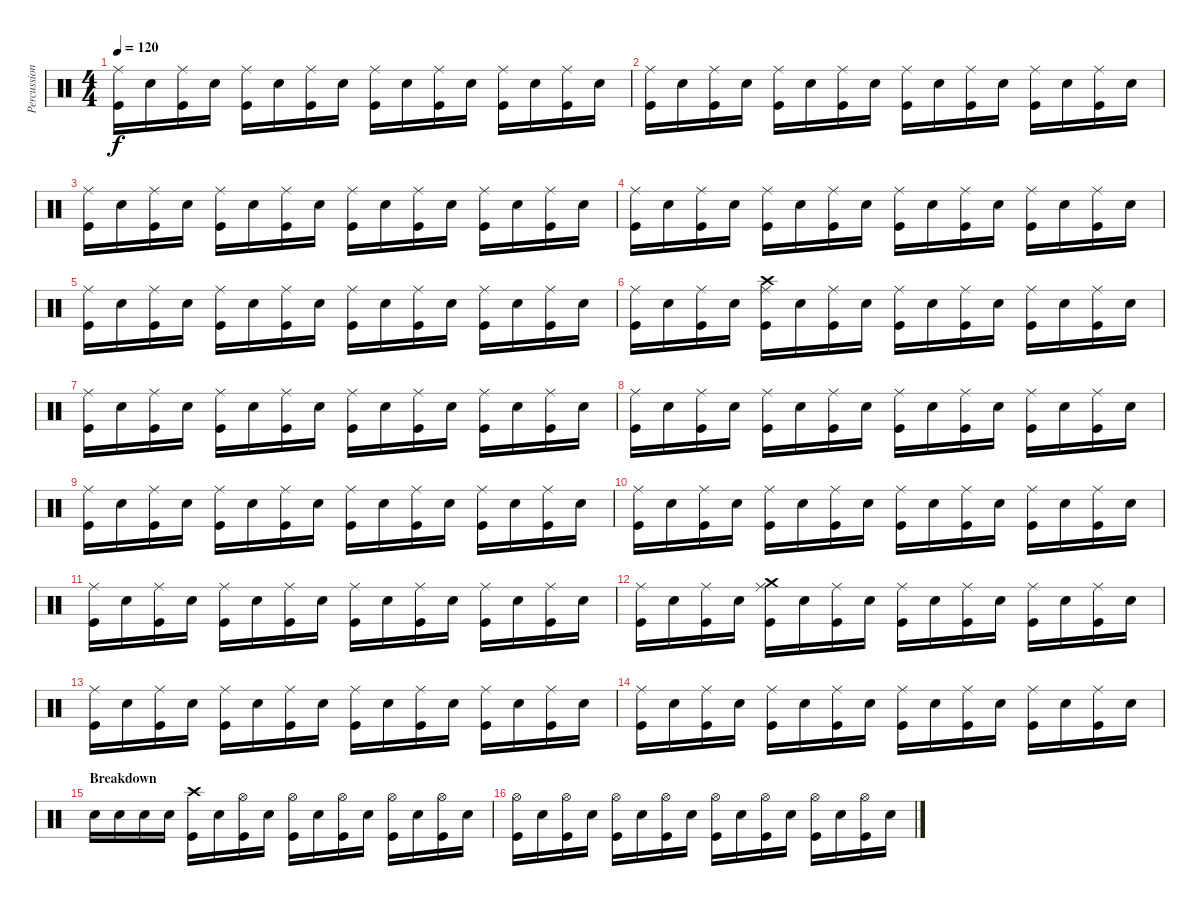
\track ("Percussioni" "Percussion") {instrument percussion}
\staff {score}
\articulation defaults
\ts (4 4)
\tempo 120
\clef neutral
\ks c
("Ride (middle)" "Kick (hit)").16{dy f} "Snare (hit) 2".16 ("Ride (middle)" "Kick (hit)").16 "Snare (hit) 2".16 ("Ride (middle)" "Kick (hit)").16 "Snare (hit) 2".16 ("Ride (middle)" "Kick (hit)").16 "Snare (hit) 2".16 ("Ride (middle)" "Kick (hit)").16 "Snare (hit) 2".16 ("Ride (middle)" "Kick (hit)").16 "Snare (hit) 2".16 ("Ride (middle)" "Kick (hit)").16 "Snare (hit) 2".16 ("Ride (middle)" "Kick (hit)").16 "Snare (hit) 2".16 |
("Ride (middle)" "Kick (hit)").16 "Snare (hit) 2".16 ("Ride (middle)" "Kick (hit)").16 "Snare (hit) 2".16 ("Ride (middle)" "Kick (hit)").16 "Snare (hit) 2".16 ("Ride (middle)" "Kick (hit)").16 "Snare (hit) 2".16 ("Ride (middle)" "Kick (hit)").16 "Snare (hit) 2".16 ("Ride (middle)" "Kick (hit)").16 "Snare (hit) 2".16 ("Ride (middle)" "Kick (hit)").16 "Snare (hit) 2".16 ("Ride (middle)" "Kick (hit)").16 "Snare (hit) 2".16 |
("Ride (middle)" "Kick (hit)").16 "Snare (hit) 2".16 ("Ride (middle)" "Kick (hit)").16 "Snare (hit) 2".16 ("Ride (middle)" "Kick (hit)").16 "Snare (hit) 2".16 ("Ride (middle)" "Kick (hit)").16 "Snare (hit) 2".16 ("Ride (middle)" "Kick (hit)").16 "Snare (hit) 2".16 ("Ride (middle)" "Kick (hit)").16 "Snare (hit) 2".16 ("Ride (middle)" "Kick (hit)").16 "Snare (hit) 2".16 ("Ride (middle)" "Kick (hit)").16 "Snare (hit) 2".16 |
("Ride (middle)" "Kick (hit)").16 "Snare (hit) 2".16 ("Ride (middle)" "Kick (hit)").16 "Snare (hit) 2".16 ("Ride (middle)" "Kick (hit)").16 "Snare (hit) 2".16 ("Ride (middle)" "Kick (hit)").16 "Snare (hit) 2".16 ("Ride (middle)" "Kick (hit)").16 "Snare (hit) 2".16 ("Ride (middle)" "Kick (hit)").16 "Snare (hit) 2".16 ("Ride (middle)" "Kick (hit)").16 "Snare (hit) 2".16 ("Ride (middle)" "Kick (hit)").16 "Snare (hit) 2".16 |
("Ride (middle)" "Kick (hit)").16 "Snare (hit) 2".16 ("Ride (middle)" "Kick (hit)").16 "Snare (hit) 2".16 ("Ride (middle)" "Kick (hit)").16 "Snare (hit) 2".16 ("Ride (middle)" "Kick (hit)").16 "Snare (hit) 2".16 ("Ride (middle)" "Kick (hit)").16 "Snare (hit) 2".16 ("Ride (middle)" "Kick (hit)").16 "Snare (hit) 2".16 ("Ride (middle)" "Kick (hit)").16 "Snare (hit) 2".16 ("Ride (middle)" "Kick (hit)").16 "Snare (hit) 2".16 |
("Ride (middle)" "Kick (hit)").16 "Snare (hit) 2".16 ("Ride (middle)" "Kick (hit)").16 "Snare (hit) 2".16 ("Crash high (hit)" "Ride (middle)" "Kick (hit)").16 "Snare (hit) 2".16 ("Ride (middle)" "Kick (hit)").16 "Snare (hit) 2".16 ("Ride (middle)" "Kick (hit)").16 "Snare (hit) 2".16 ("Ride (middle)" "Kick (hit)").16 "Snare (hit) 2".16 ("Ride (middle)" "Kick (hit)").16 "Snare (hit) 2".16 ("Ride (middle)" "Kick (hit)").16 "Snare (hit) 2".16 |
("Ride (middle)" "Kick (hit)").16 "Snare (hit) 2".16 ("Ride (middle)" "Kick (hit)").16 "Snare (hit) 2".16 ("Ride (middle)" "Kick (hit)").16 "Snare (hit) 2".16 ("Ride (middle)" "Kick (hit)").16 "Snare (hit) 2".16 ("Ride (middle)" "Kick (hit)").16 "Snare (hit) 2".16 ("Ride (middle)" "Kick (hit)").16 "Snare (hit) 2".16 ("Ride (middle)" "Kick (hit)").16 "Snare (hit) 2".16 ("Ride (middle)" "Kick (hit)").16 "Snare (hit) 2".16 |
("Ride (middle)" "Kick (hit)").16 "Snare (hit) 2".16 ("Ride (middle)" "Kick (hit)").16 "Snare (hit) 2".16 ("Ride (middle)" "Kick (hit)").16 "Snare (hit) 2".16 ("Ride (middle)" "Kick (hit)").16 "Snare (hit) 2".16 ("Ride (middle)" "Kick (hit)").16 "Snare (hit) 2".16 ("Ride (middle)" "Kick (hit)").16 "Snare (hit) 2".16 ("Ride (middle)" "Kick (hit)").16 "Snare (hit) 2".16 ("Ride (middle)" "Kick (hit)").16 "Snare (hit) 2".16 |
("Ride (middle)" "Kick (hit)").16 "Snare (hit) 2".16 ("Ride (middle)" "Kick (hit)").16 "Snare (hit) 2".16 ("Ride (middle)" "Kick (hit)").16 "Snare (hit) 2".16 ("Ride (middle)" "Kick (hit)").16 "Snare (hit) 2".16 ("Ride (middle)" "Kick (hit)").16 "Snare (hit) 2".16 ("Ride (middle)" "Kick (hit)").16 "Snare (hit) 2".16 ("Ride (middle)" "Kick (hit)").16 "Snare (hit) 2".16 ("Ride (middle)" "Kick (hit)").16 "Snare (hit) 2".16 |
("Ride (middle)" "Kick (hit)").16 "Snare (hit) 2".16 ("Ride (middle)" "Kick (hit)").16 "Snare (hit) 2".16 ("Ride (middle)" "Kick (hit)").16 "Snare (hit) 2".16 ("Ride (middle)" "Kick (hit)").16 "Snare (hit) 2".16 ("Ride (middle)" "Kick (hit)").16 "Snare (hit) 2".16 ("Ride (middle)" "Kick (hit)").16 "Snare (hit) 2".16 ("Ride (middle)" "Kick (hit)").16 "Snare (hit) 2".16 ("Ride (middle)" "Kick (hit)").16 "Snare (hit) 2".16 |
("Ride (middle)" "Kick (hit)").16 "Snare (hit) 2".16 ("Ride (middle)" "Kick (hit)").16 "Snare (hit) 2".16 ("Ride (middle)" "Kick (hit)").16 "Snare (hit) 2".16 ("Ride (middle)" "Kick (hit)").16 "Snare (hit) 2".16 ("Ride (middle)" "Kick (hit)").16 "Snare (hit) 2".16 ("Ride (middle)" "Kick (hit)").16 "Snare (hit) 2".16 ("Ride (middle)" "Kick (hit)").16 "Snare (hit) 2".16 ("Ride (middle)" "Kick (hit)").16 "Snare (hit) 2".16 |
("Ride (middle)" "Kick (hit)").16 "Snare (hit) 2".16 ("Ride (middle)" "Kick (hit)").16 "Snare (hit) 2".16 ("Crash medium (hit)" "Ride (middle)" "Kick (hit)").16 "Snare (hit) 2".16 ("Ride (middle)" "Kick (hit)").16 "Snare (hit) 2".16 ("Ride (middle)" "Kick (hit)").16 "Snare (hit) 2".16 ("Ride (middle)" "Kick (hit)").16 "Snare (hit) 2".16 ("Ride (middle)" "Kick (hit)").16 "Snare (hit) 2".16 ("Ride (middle)" "Kick (hit)").16 "Snare (hit) 2".16 |
("Ride (middle)" "Kick (hit)").16 "Snare (hit) 2".16 ("Ride (middle)" "Kick (hit)").16 "Snare (hit) 2".16 ("Ride (middle)" "Kick (hit)").16 "Snare (hit) 2".16 ("Ride (middle)" "Kick (hit)").16 "Snare (hit) 2".16 ("Ride (middle)" "Kick (hit)").16 "Snare (hit) 2".16 ("Ride (middle)" "Kick (hit)").16 "Snare (hit) 2".16 ("Ride (middle)" "Kick (hit)").16 "Snare (hit) 2".16 ("Ride (middle)" "Kick (hit)").16 "Snare (hit) 2".16 |
("Ride (middle)" "Kick (hit)").16 "Snare (hit) 2".16 ("Ride (middle)" "Kick (hit)").16 "Snare (hit) 2".16 ("Ride (middle)" "Kick (hit)").16 "Snare (hit) 2".16 ("Ride (middle)" "Kick (hit)").16 "Snare (hit) 2".16 ("Ride (middle)" "Kick (hit)").16 "Snare (hit) 2".16 ("Ride (middle)" "Kick (hit)").16 "Snare (hit) 2".16 ("Ride (middle)" "Kick (hit)").16 "Snare (hit) 2".16 ("Ride (middle)" "Kick (hit)").16 "Snare (hit) 2".16 |
\section ("" "Breakdown")
"Snare (hit) 2".16 "Snare (hit) 2".16 "Snare (hit) 2".16 "Snare (hit) 2".16 ("Crash high (hit)" "Kick (hit)").16 "Snare (hit) 2".16 ("Hi-Hat (open)" "Kick (hit)").16 "Snare (hit) 2".16 ("Hi-Hat (open)" "Kick (hit)").16 "Snare (hit) 2".16 ("Hi-Hat (open)" "Kick (hit)").16 "Snare (hit) 2".16 ("Hi-Hat (open)" "Kick (hit)").16 "Snare (hit) 2".16 ("Hi-Hat (open)" "Kick (hit)").16 "Snare (hit) 2".16 |
("Hi-Hat (open)" "Kick (hit)").16 "Snare (hit) 2".16 ("Hi-Hat (open)" "Kick (hit)").16 "Snare (hit) 2".16 ("Hi-Hat (open)" "Kick (hit)").16 "Snare (hit) 2".16 ("Hi-Hat (open)" "Kick (hit)").16 "Snare (hit) 2".16 ("Hi-Hat (open)" "Kick (hit)").16 "Snare (hit) 2".16 ("Hi-Hat (open)" "Kick (hit)").16 "Snare (hit) 2".16 ("Hi-Hat (open)" "Kick (hit)").16 "Snare (hit) 2".16 ("Hi-Hat (open)" "Kick (hit)").16 "Snare (hit) 2".16
